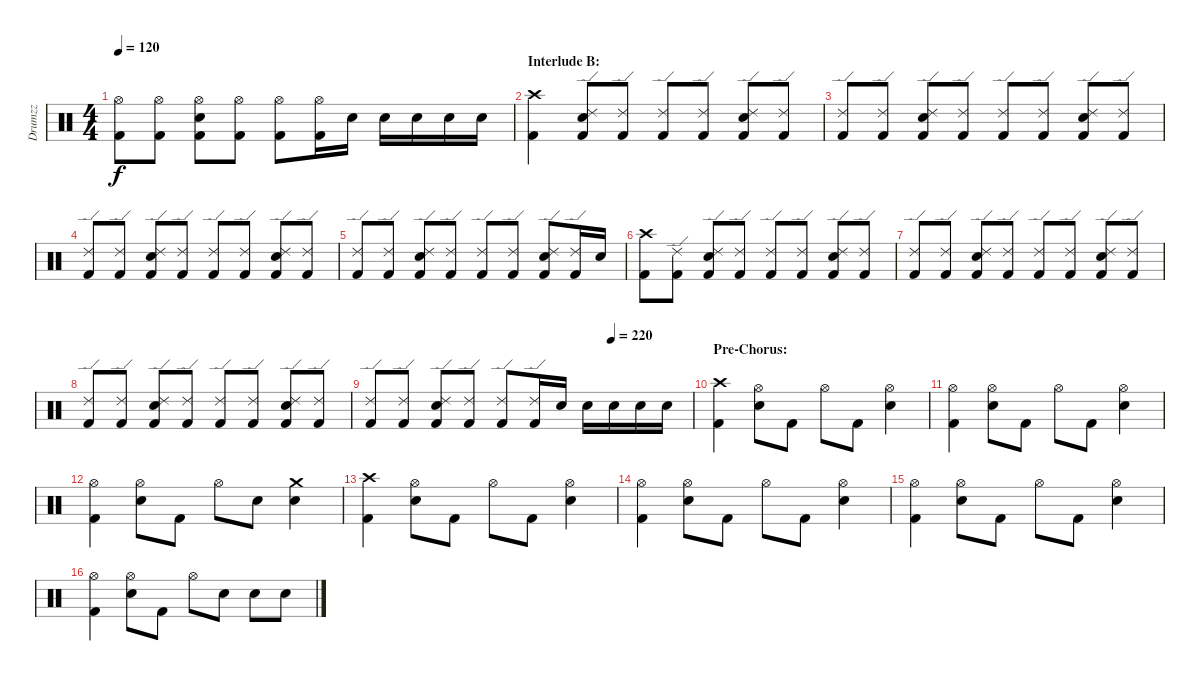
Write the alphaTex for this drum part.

\track ("Drumzz" "Drumzz") {instrument percussion}
\staff {score}
\articulation defaults
\ts (4 4)
\tempo 120
\clef neutral
\ks c
("Hi-Hat (open)" "Kick (hit) 2").8{dy f} ("Hi-Hat (open)" "Kick (hit) 2").8 ("Hi-Hat (open)" "Electric Snare (hit)" "Kick (hit) 2").8 ("Hi-Hat (open)" "Kick (hit) 2").8 ("Hi-Hat (open)" "Kick (hit) 2").8 ("Hi-Hat (open)" "Kick (hit) 2").16 "Electric Snare (hit)".16 "Electric Snare (hit)".16 "Electric Snare (hit)".16 "Electric Snare (hit)".16 "Electric Snare (hit)".16 |
\section ("" "Interlude B:")
("Crash high (hit)" "Kick (hit) 2").4 ("Ride (edge) 2" "Electric Snare (hit)" "Kick (hit) 2").8 ("Ride (edge) 2" "Kick (hit) 2").8 ("Ride (edge) 2" "Kick (hit) 2").8 ("Ride (edge) 2" "Kick (hit) 2").8 ("Ride (edge) 2" "Electric Snare (hit)" "Kick (hit) 2").8 ("Ride (edge) 2" "Kick (hit) 2").8 |
("Ride (edge) 2" "Kick (hit) 2").8 ("Ride (edge) 2" "Kick (hit) 2").8 ("Ride (edge) 2" "Electric Snare (hit)" "Kick (hit) 2").8 ("Ride (edge) 2" "Kick (hit) 2").8 ("Ride (edge) 2" "Kick (hit) 2").8 ("Ride (edge) 2" "Kick (hit) 2").8 ("Ride (edge) 2" "Electric Snare (hit)" "Kick (hit) 2").8 ("Ride (edge) 2" "Kick (hit) 2").8 |
("Ride (edge) 2" "Kick (hit) 2").8 ("Ride (edge) 2" "Kick (hit) 2").8 ("Ride (edge) 2" "Electric Snare (hit)" "Kick (hit) 2").8 ("Ride (edge) 2" "Kick (hit) 2").8 ("Ride (edge) 2" "Kick (hit) 2").8 ("Ride (edge) 2" "Kick (hit) 2").8 ("Ride (edge) 2" "Electric Snare (hit)" "Kick (hit) 2").8 ("Ride (edge) 2" "Kick (hit) 2").8 |
("Ride (edge) 2" "Kick (hit) 2").8 ("Ride (edge) 2" "Kick (hit) 2").8 ("Ride (edge) 2" "Electric Snare (hit)" "Kick (hit) 2").8 ("Ride (edge) 2" "Kick (hit) 2").8 ("Ride (edge) 2" "Kick (hit) 2").8 ("Ride (edge) 2" "Kick (hit) 2").8 ("Ride (edge) 2" "Electric Snare (hit)" "Kick (hit) 2").8 ("Ride (edge) 2" "Kick (hit) 2").16 "Electric Snare (hit)".16 |
("Crash high (hit)" "Kick (hit) 2").8 ("Ride (edge) 2" "Kick (hit) 2").8 ("Ride (edge) 2" "Electric Snare (hit)" "Kick (hit) 2").8 ("Ride (edge) 2" "Kick (hit) 2").8 ("Ride (edge) 2" "Kick (hit) 2").8 ("Ride (edge) 2" "Kick (hit) 2").8 ("Ride (edge) 2" "Electric Snare (hit)" "Kick (hit) 2").8 ("Ride (edge) 2" "Kick (hit) 2").8 |
("Ride (edge) 2" "Kick (hit) 2").8 ("Ride (edge) 2" "Kick (hit) 2").8 ("Ride (edge) 2" "Electric Snare (hit)" "Kick (hit) 2").8 ("Ride (edge) 2" "Kick (hit) 2").8 ("Ride (edge) 2" "Kick (hit) 2").8 ("Ride (edge) 2" "Kick (hit) 2").8 ("Ride (edge) 2" "Electric Snare (hit)" "Kick (hit) 2").8 ("Ride (edge) 2" "Kick (hit) 2").8 |
("Ride (edge) 2" "Kick (hit) 2").8 ("Ride (edge) 2" "Kick (hit) 2").8 ("Ride (edge) 2" "Electric Snare (hit)" "Kick (hit) 2").8 ("Ride (edge) 2" "Kick (hit) 2").8 ("Ride (edge) 2" "Kick (hit) 2").8 ("Ride (edge) 2" "Kick (hit) 2").8 ("Ride (edge) 2" "Electric Snare (hit)" "Kick (hit) 2").8 ("Ride (edge) 2" "Kick (hit) 2").8 |
\tempo (220 0.75)
("Ride (edge) 2" "Kick (hit) 2").8 ("Ride (edge) 2" "Kick (hit) 2").8 ("Ride (edge) 2" "Electric Snare (hit)" "Kick (hit) 2").8 ("Ride (edge) 2" "Kick (hit) 2").8 ("Ride (edge) 2" "Kick (hit) 2").8 ("Ride (edge) 2" "Kick (hit) 2").16 "Electric Snare (hit)".16 "Electric Snare (hit)".16 "Electric Snare (hit)".16 "Electric Snare (hit)".16 "Electric Snare (hit)".16 |
\section ("" "Pre-Chorus:")
("Crash high (hit)" "Kick (hit) 2").4 ("Hi-Hat (open)" "Electric Snare (hit)").8 "Kick (hit) 2".8 "Hi-Hat (open)".8 "Kick (hit) 2".8 ("Hi-Hat (open)" "Electric Snare (hit)").4 |
("Hi-Hat (open)" "Kick (hit) 2").4 ("Hi-Hat (open)" "Electric Snare (hit)").8 "Kick (hit) 2".8 "Hi-Hat (open)".8 "Kick (hit) 2".8 ("Hi-Hat (open)" "Electric Snare (hit)").4 |
("Hi-Hat (open)" "Kick (hit) 2").4 ("Hi-Hat (open)" "Electric Snare (hit)").8 "Kick (hit) 2".8 "Hi-Hat (open)".8 "Electric Snare (hit)".8 ("Crash medium (hit)" "Electric Snare (hit)").4 |
("Crash high (hit)" "Kick (hit) 2").4 ("Hi-Hat (open)" "Electric Snare (hit)").8 "Kick (hit) 2".8 "Hi-Hat (open)".8 "Kick (hit) 2".8 ("Hi-Hat (open)" "Electric Snare (hit)").4 |
("Hi-Hat (open)" "Kick (hit) 2").4 ("Hi-Hat (open)" "Electric Snare (hit)").8 "Kick (hit) 2".8 "Hi-Hat (open)".8 "Kick (hit) 2".8 ("Hi-Hat (open)" "Electric Snare (hit)").4 |
("Hi-Hat (open)" "Kick (hit) 2").4 ("Hi-Hat (open)" "Electric Snare (hit)").8 "Kick (hit) 2".8 "Hi-Hat (open)".8 "Kick (hit) 2".8 ("Hi-Hat (open)" "Electric Snare (hit)").4 |
("Hi-Hat (open)" "Kick (hit) 2").4 ("Hi-Hat (open)" "Electric Snare (hit)").8 "Kick (hit) 2".8 "Hi-Hat (open)".8 "Electric Snare (hit)".8 "Electric Snare (hit)".8 "Electric Snare (hit)".8
